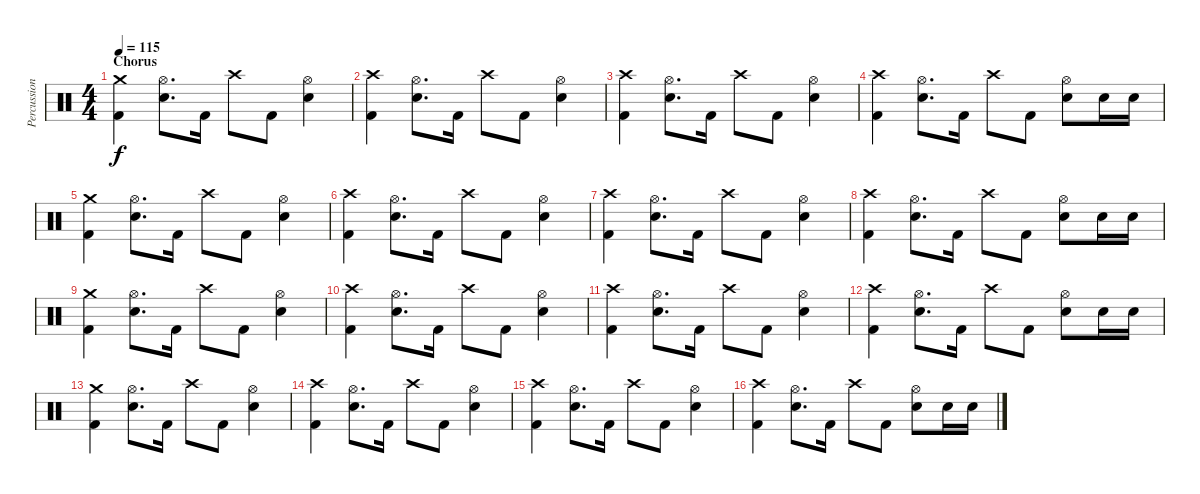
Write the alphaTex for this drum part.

\track ("Percussion" "Percussion") {instrument percussion}
\staff {score}
\articulation defaults
\ts (4 4)
\section ("" "Chorus")
\tempo 115
\clef neutral
\ks c
("Crash medium (hit)" "Kick (hit) 2").4{dy f} ("Hi-Hat (open)" "Electric Snare (hit)").8{d} "Kick (hit) 2".16 "Crash high (hit)".8 "Kick (hit) 2".8 ("Hi-Hat (open)" "Electric Snare (hit)").4 |
("Crash high (hit)" "Kick (hit) 2").4 ("Hi-Hat (open)" "Electric Snare (hit)").8{d} "Kick (hit) 2".16 "Crash high (hit)".8 "Kick (hit) 2".8 ("Hi-Hat (open)" "Electric Snare (hit)").4 |
("Crash high (hit)" "Kick (hit) 2").4 ("Hi-Hat (open)" "Electric Snare (hit)").8{d} "Kick (hit) 2".16 "Crash high (hit)".8 "Kick (hit) 2".8 ("Hi-Hat (open)" "Electric Snare (hit)").4 |
("Crash high (hit)" "Kick (hit) 2").4 ("Hi-Hat (open)" "Electric Snare (hit)").8{d} "Kick (hit) 2".16 "Crash high (hit)".8 "Kick (hit) 2".8 ("Hi-Hat (open)" "Electric Snare (hit)").8 "Electric Snare (hit)".16 "Electric Snare (hit)".16 |
("Crash medium (hit)" "Kick (hit) 2").4 ("Hi-Hat (open)" "Electric Snare (hit)").8{d} "Kick (hit) 2".16 "Crash high (hit)".8 "Kick (hit) 2".8 ("Hi-Hat (open)" "Electric Snare (hit)").4 |
("Crash high (hit)" "Kick (hit) 2").4 ("Hi-Hat (open)" "Electric Snare (hit)").8{d} "Kick (hit) 2".16 "Crash high (hit)".8 "Kick (hit) 2".8 ("Hi-Hat (open)" "Electric Snare (hit)").4 |
("Crash high (hit)" "Kick (hit) 2").4 ("Hi-Hat (open)" "Electric Snare (hit)").8{d} "Kick (hit) 2".16 "Crash high (hit)".8 "Kick (hit) 2".8 ("Hi-Hat (open)" "Electric Snare (hit)").4 |
("Crash high (hit)" "Kick (hit) 2").4 ("Hi-Hat (open)" "Electric Snare (hit)").8{d} "Kick (hit) 2".16 "Crash high (hit)".8 "Kick (hit) 2".8 ("Hi-Hat (open)" "Electric Snare (hit)").8 "Electric Snare (hit)".16 "Electric Snare (hit)".16 |
("Crash medium (hit)" "Kick (hit) 2").4 ("Hi-Hat (open)" "Electric Snare (hit)").8{d} "Kick (hit) 2".16 "Crash high (hit)".8 "Kick (hit) 2".8 ("Hi-Hat (open)" "Electric Snare (hit)").4 |
("Crash high (hit)" "Kick (hit) 2").4 ("Hi-Hat (open)" "Electric Snare (hit)").8{d} "Kick (hit) 2".16 "Crash high (hit)".8 "Kick (hit) 2".8 ("Hi-Hat (open)" "Electric Snare (hit)").4 |
("Crash high (hit)" "Kick (hit) 2").4 ("Hi-Hat (open)" "Electric Snare (hit)").8{d} "Kick (hit) 2".16 "Crash high (hit)".8 "Kick (hit) 2".8 ("Hi-Hat (open)" "Electric Snare (hit)").4 |
("Crash high (hit)" "Kick (hit) 2").4 ("Hi-Hat (open)" "Electric Snare (hit)").8{d} "Kick (hit) 2".16 "Crash high (hit)".8 "Kick (hit) 2".8 ("Hi-Hat (open)" "Electric Snare (hit)").8 "Electric Snare (hit)".16 "Electric Snare (hit)".16 |
("Crash medium (hit)" "Kick (hit) 2").4 ("Hi-Hat (open)" "Electric Snare (hit)").8{d} "Kick (hit) 2".16 "Crash high (hit)".8 "Kick (hit) 2".8 ("Hi-Hat (open)" "Electric Snare (hit)").4 |
("Crash high (hit)" "Kick (hit) 2").4 ("Hi-Hat (open)" "Electric Snare (hit)").8{d} "Kick (hit) 2".16 "Crash high (hit)".8 "Kick (hit) 2".8 ("Hi-Hat (open)" "Electric Snare (hit)").4 |
("Crash high (hit)" "Kick (hit) 2").4 ("Hi-Hat (open)" "Electric Snare (hit)").8{d} "Kick (hit) 2".16 "Crash high (hit)".8 "Kick (hit) 2".8 ("Hi-Hat (open)" "Electric Snare (hit)").4 |
("Crash high (hit)" "Kick (hit) 2").4 ("Hi-Hat (open)" "Electric Snare (hit)").8{d} "Kick (hit) 2".16 "Crash high (hit)".8 "Kick (hit) 2".8 ("Hi-Hat (open)" "Electric Snare (hit)").8 "Electric Snare (hit)".16 "Electric Snare (hit)".16
